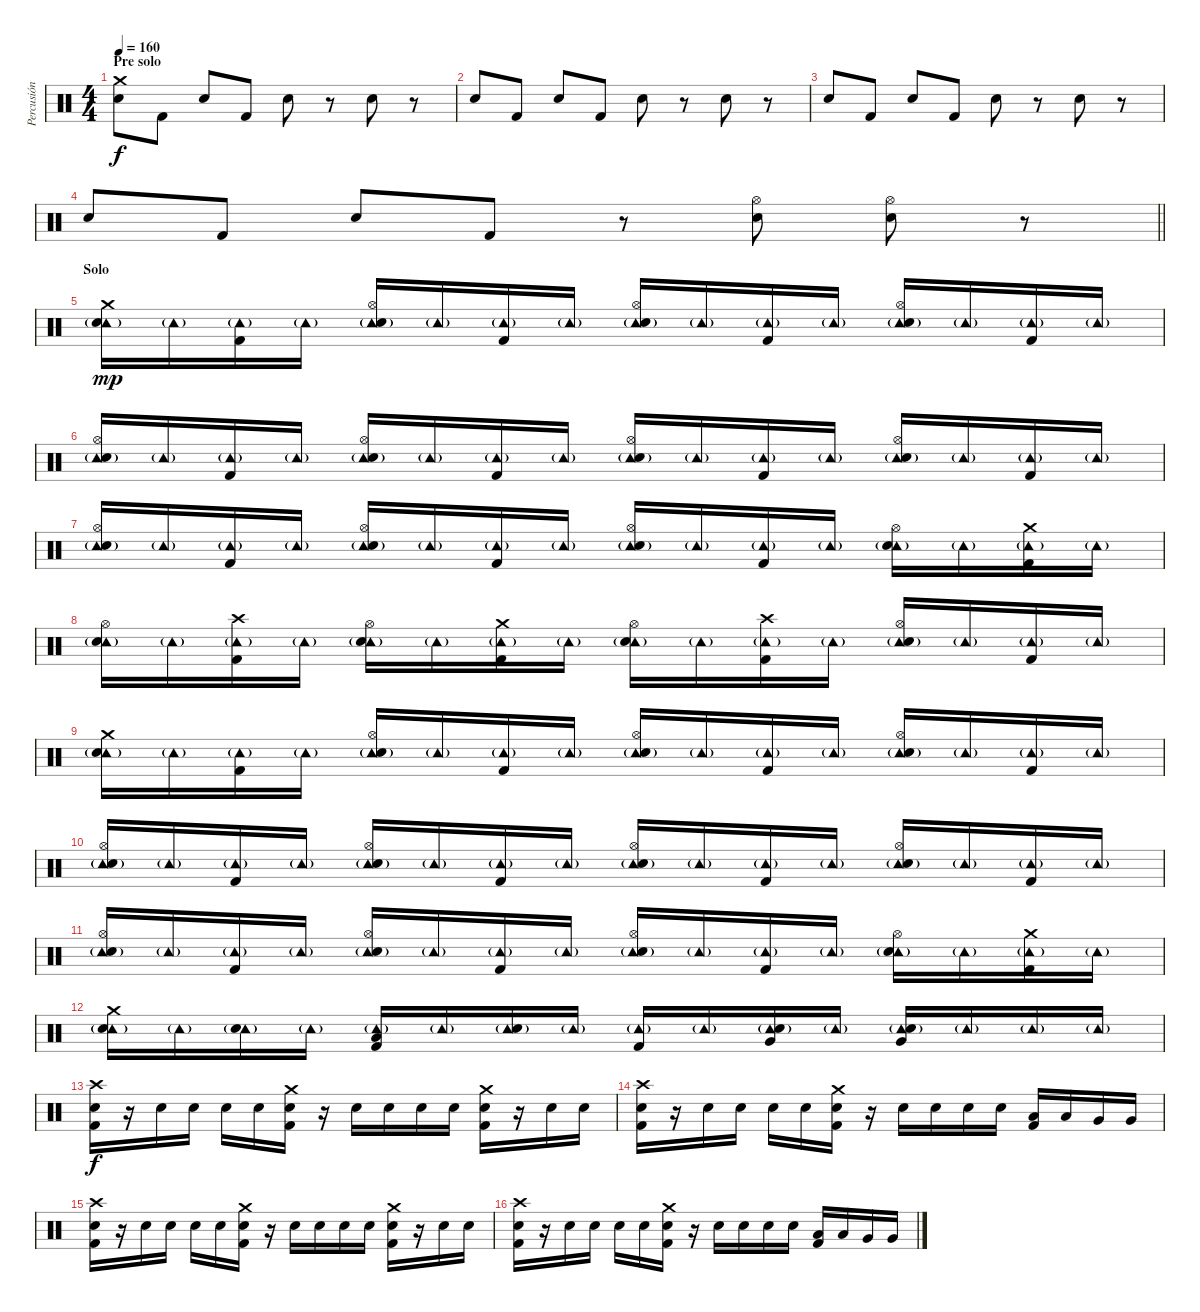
\track ("Percusión" "Percusión") {instrument percussion}
\staff {score}
\articulation defaults
\ts (4 4)
\section ("" "Pre solo")
\tempo 160
\clef neutral
\ks c
("Crash medium (hit)" "Electric Snare (hit)").8{dy f} "Kick (hit) 2".8 "Electric Snare (hit)".8 "Kick (hit) 2".8 "Electric Snare (hit)".8 r.8 "Electric Snare (hit)".8 r.8 |
"Electric Snare (hit)".8 "Kick (hit) 2".8 "Electric Snare (hit)".8 "Kick (hit) 2".8 "Electric Snare (hit)".8 r.8 "Electric Snare (hit)".8 r.8 |
"Electric Snare (hit)".8 "Kick (hit) 2".8 "Electric Snare (hit)".8 "Kick (hit) 2".8 "Electric Snare (hit)".8 r.8 "Electric Snare (hit)".8 r.8 |
\barLineRight lightlight "Electric Snare (hit)".8 "Kick (hit) 2".8 "Electric Snare (hit)".8 "Kick (hit) 2".8
r.8 ("Hi-Hat (open)" "Electric Snare (hit)").8 ("Hi-Hat (open)" "Electric Snare (hit)").8 r.8 |
\section ("" "Solo")
("Tambourine (hit)"{g} "Crash medium (hit)" "Electric Snare (hit)").16{dy mp} "Tambourine (hit)"{g}.16 ("Tambourine (hit)"{g} "Kick (hit) 2").16 "Tambourine (hit)"{g}.16 ("Tambourine (hit)"{g} "Hi-Hat (open)" "Electric Snare (hit)").16 "Tambourine (hit)"{g}.16 ("Tambourine (hit)"{g} "Kick (hit) 2").16 "Tambourine (hit)"{g}.16 ("Tambourine (hit)"{g} "Hi-Hat (open)" "Electric Snare (hit)").16 "Tambourine (hit)"{g}.16 ("Tambourine (hit)"{g} "Kick (hit) 2").16 "Tambourine (hit)"{g}.16 ("Tambourine (hit)"{g} "Hi-Hat (open)" "Electric Snare (hit)").16 "Tambourine (hit)"{g}.16 ("Tambourine (hit)"{g} "Kick (hit) 2").16 "Tambourine (hit)"{g}.16 |
("Tambourine (hit)"{g} "Hi-Hat (open)" "Electric Snare (hit)").16 "Tambourine (hit)"{g}.16 ("Tambourine (hit)"{g} "Kick (hit) 2").16 "Tambourine (hit)"{g}.16 ("Tambourine (hit)"{g} "Hi-Hat (open)" "Electric Snare (hit)").16 "Tambourine (hit)"{g}.16 ("Tambourine (hit)"{g} "Kick (hit) 2").16 "Tambourine (hit)"{g}.16 ("Tambourine (hit)"{g} "Hi-Hat (open)" "Electric Snare (hit)").16 "Tambourine (hit)"{g}.16 ("Tambourine (hit)"{g} "Kick (hit) 2").16 "Tambourine (hit)"{g}.16 ("Tambourine (hit)"{g} "Hi-Hat (open)" "Electric Snare (hit)").16 "Tambourine (hit)"{g}.16 ("Tambourine (hit)"{g} "Kick (hit) 2").16 "Tambourine (hit)"{g}.16 |
("Tambourine (hit)"{g} "Hi-Hat (open)" "Electric Snare (hit)").16 "Tambourine (hit)"{g}.16 ("Tambourine (hit)"{g} "Kick (hit) 2").16 "Tambourine (hit)"{g}.16 ("Tambourine (hit)"{g} "Hi-Hat (open)" "Electric Snare (hit)").16 "Tambourine (hit)"{g}.16 ("Tambourine (hit)"{g} "Kick (hit) 2").16 "Tambourine (hit)"{g}.16 ("Tambourine (hit)"{g} "Hi-Hat (open)" "Electric Snare (hit)").16 "Tambourine (hit)"{g}.16 ("Tambourine (hit)"{g} "Kick (hit) 2").16 "Tambourine (hit)"{g}.16 ("Tambourine (hit)"{g} "Hi-Hat (open)" "Electric Snare (hit)").16 "Tambourine (hit)"{g}.16 ("Tambourine (hit)"{g} "Crash medium (hit)" "Kick (hit) 2").16 "Tambourine (hit)"{g}.16 |
("Tambourine (hit)"{g} "Hi-Hat (open)" "Electric Snare (hit)").16 "Tambourine (hit)"{g}.16 ("Tambourine (hit)"{g} "Crash high (hit)" "Kick (hit) 2").16 "Tambourine (hit)"{g}.16 ("Tambourine (hit)"{g} "Hi-Hat (open)" "Electric Snare (hit)").16 "Tambourine (hit)"{g}.16 ("Tambourine (hit)"{g} "Crash medium (hit)" "Kick (hit) 2").16 "Tambourine (hit)"{g}.16 ("Tambourine (hit)"{g} "Hi-Hat (open)" "Electric Snare (hit)").16 "Tambourine (hit)"{g}.16 ("Tambourine (hit)"{g} "Crash high (hit)" "Kick (hit) 2").16 "Tambourine (hit)"{g}.16 ("Tambourine (hit)"{g} "Hi-Hat (open)" "Electric Snare (hit)").16 "Tambourine (hit)"{g}.16 ("Tambourine (hit)"{g} "Kick (hit) 2").16 "Tambourine (hit)"{g}.16 |
("Tambourine (hit)"{g} "Crash medium (hit)" "Electric Snare (hit)").16 "Tambourine (hit)"{g}.16 ("Tambourine (hit)"{g} "Kick (hit) 2").16 "Tambourine (hit)"{g}.16 ("Tambourine (hit)"{g} "Hi-Hat (open)" "Electric Snare (hit)").16 "Tambourine (hit)"{g}.16 ("Tambourine (hit)"{g} "Kick (hit) 2").16 "Tambourine (hit)"{g}.16 ("Tambourine (hit)"{g} "Hi-Hat (open)" "Electric Snare (hit)").16 "Tambourine (hit)"{g}.16 ("Tambourine (hit)"{g} "Kick (hit) 2").16 "Tambourine (hit)"{g}.16 ("Tambourine (hit)"{g} "Hi-Hat (open)" "Electric Snare (hit)").16 "Tambourine (hit)"{g}.16 ("Tambourine (hit)"{g} "Kick (hit) 2").16 "Tambourine (hit)"{g}.16 |
("Tambourine (hit)"{g} "Hi-Hat (open)" "Electric Snare (hit)").16 "Tambourine (hit)"{g}.16 ("Tambourine (hit)"{g} "Kick (hit) 2").16 "Tambourine (hit)"{g}.16 ("Tambourine (hit)"{g} "Hi-Hat (open)" "Electric Snare (hit)").16 "Tambourine (hit)"{g}.16 ("Tambourine (hit)"{g} "Kick (hit) 2").16 "Tambourine (hit)"{g}.16 ("Tambourine (hit)"{g} "Hi-Hat (open)" "Electric Snare (hit)").16 "Tambourine (hit)"{g}.16 ("Tambourine (hit)"{g} "Kick (hit) 2").16 "Tambourine (hit)"{g}.16 ("Tambourine (hit)"{g} "Hi-Hat (open)" "Electric Snare (hit)").16 "Tambourine (hit)"{g}.16 ("Tambourine (hit)"{g} "Kick (hit) 2").16 "Tambourine (hit)"{g}.16 |
("Tambourine (hit)"{g} "Hi-Hat (open)" "Electric Snare (hit)").16 "Tambourine (hit)"{g}.16 ("Tambourine (hit)"{g} "Kick (hit) 2").16 "Tambourine (hit)"{g}.16 ("Tambourine (hit)"{g} "Hi-Hat (open)" "Electric Snare (hit)").16 "Tambourine (hit)"{g}.16 ("Tambourine (hit)"{g} "Kick (hit) 2").16 "Tambourine (hit)"{g}.16 ("Tambourine (hit)"{g} "Hi-Hat (open)" "Electric Snare (hit)").16 "Tambourine (hit)"{g}.16 ("Tambourine (hit)"{g} "Kick (hit) 2").16 "Tambourine (hit)"{g}.16 ("Tambourine (hit)"{g} "Hi-Hat (open)" "Electric Snare (hit)").16 "Tambourine (hit)"{g}.16 ("Tambourine (hit)"{g} "Crash medium (hit)" "Kick (hit) 2").16 "Tambourine (hit)"{g}.16 |
("Tambourine (hit)"{g} "Crash medium (hit)" "Electric Snare (hit)").16 "Tambourine (hit)"{g}.16 ("Tambourine (hit)"{g} "Electric Snare (hit)").16 "Tambourine (hit)"{g}.16 ("Tambourine (hit)"{g} "Low Tom (hit)" "Kick (hit) 2").16 "Tambourine (hit)"{g}.16 ("Tambourine (hit)"{g} "Electric Snare (hit)").16 "Tambourine (hit)"{g}.16 ("Tambourine (hit)"{g} "Kick (hit) 2").16 "Tambourine (hit)"{g}.16 ("Tambourine (hit)"{g} "Very Low Tom (hit)" "Electric Snare (hit)").16 "Tambourine (hit)"{g}.16 ("Tambourine (hit)"{g} "Very Low Tom (hit)" "Electric Snare (hit)").16 "Tambourine (hit)"{g}.16 "Tambourine (hit)"{g}.16 "Tambourine (hit)"{g}.16 |
("Crash high (hit)" "Electric Snare (hit)" "Kick (hit) 2").16{dy f} r.16 "Electric Snare (hit)".16 "Electric Snare (hit)".16 "Electric Snare (hit)".16 "Electric Snare (hit)".16 ("Crash medium (hit)" "Electric Snare (hit)" "Kick (hit) 2").16 r.16 "Electric Snare (hit)".16 "Electric Snare (hit)".16 "Electric Snare (hit)".16 "Electric Snare (hit)".16 ("Crash medium (hit)" "Electric Snare (hit)" "Kick (hit) 2").16 r.16 "Electric Snare (hit)".16 "Electric Snare (hit)".16 |
("Crash high (hit)" "Electric Snare (hit)" "Kick (hit) 2").16 r.16 "Electric Snare (hit)".16 "Electric Snare (hit)".16 "Electric Snare (hit)".16 "Electric Snare (hit)".16 ("Crash medium (hit)" "Electric Snare (hit)" "Kick (hit) 2").16 r.16 "Electric Snare (hit)".16 "Electric Snare (hit)".16 "Electric Snare (hit)".16 "Electric Snare (hit)".16 ("Low Tom (hit)" "Kick (hit) 2").16 "Low Tom (hit)".16 "Very Low Tom (hit)".16 "Very Low Tom (hit)".16 |
("Crash high (hit)" "Electric Snare (hit)" "Kick (hit) 2").16 r.16 "Electric Snare (hit)".16 "Electric Snare (hit)".16 "Electric Snare (hit)".16 "Electric Snare (hit)".16 ("Crash medium (hit)" "Electric Snare (hit)" "Kick (hit) 2").16 r.16 "Electric Snare (hit)".16 "Electric Snare (hit)".16 "Electric Snare (hit)".16 "Electric Snare (hit)".16 ("Crash medium (hit)" "Electric Snare (hit)" "Kick (hit) 2").16 r.16 "Electric Snare (hit)".16 "Electric Snare (hit)".16 |
("Crash high (hit)" "Electric Snare (hit)" "Kick (hit) 2").16 r.16 "Electric Snare (hit)".16 "Electric Snare (hit)".16 "Electric Snare (hit)".16 "Electric Snare (hit)".16 ("Crash medium (hit)" "Electric Snare (hit)" "Kick (hit) 2").16 r.16 "Electric Snare (hit)".16 "Electric Snare (hit)".16 "Electric Snare (hit)".16 "Electric Snare (hit)".16 ("Low Tom (hit)" "Kick (hit) 2").16 "Low Tom (hit)".16 "Very Low Tom (hit)".16 "Very Low Tom (hit)".16
